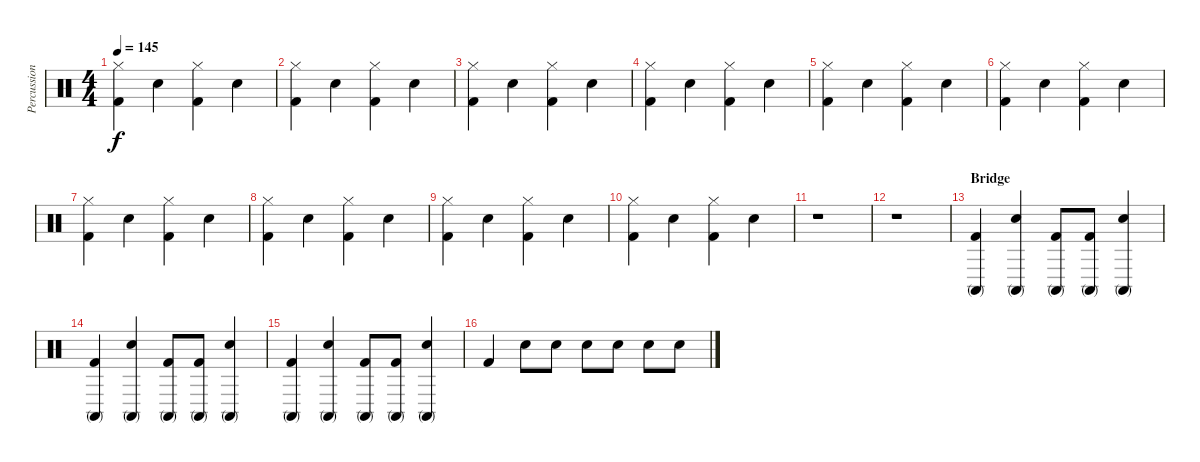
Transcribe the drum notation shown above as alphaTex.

\track ("Percussions" "Percussion") {instrument percussion}
\staff {score}
\articulation defaults
\ts (4 4)
\tempo 145
\clef neutral
\ks c
("Kick (hit) 2" "Hi-Hat (closed)").4{dy f} "Snare (hit) 2".4 ("Kick (hit) 2" "Hi-Hat (closed)").4 "Snare (hit) 2".4 |
("Kick (hit) 2" "Hi-Hat (closed)").4 "Snare (hit) 2".4 ("Kick (hit) 2" "Hi-Hat (closed)").4 "Snare (hit) 2".4 |
("Kick (hit) 2" "Hi-Hat (closed)").4 "Snare (hit) 2".4 ("Kick (hit) 2" "Hi-Hat (closed)").4 "Snare (hit) 2".4 |
("Kick (hit) 2" "Hi-Hat (closed)").4 "Snare (hit) 2".4 ("Kick (hit) 2" "Hi-Hat (closed)").4 "Snare (hit) 2".4 |
("Kick (hit) 2" "Hi-Hat (closed)").4 "Snare (hit) 2".4 ("Kick (hit) 2" "Hi-Hat (closed)").4 "Snare (hit) 2".4 |
("Kick (hit) 2" "Hi-Hat (closed)").4 "Snare (hit) 2".4 ("Kick (hit) 2" "Hi-Hat (closed)").4 "Snare (hit) 2".4 |
("Kick (hit) 2" "Hi-Hat (closed)").4 "Snare (hit) 2".4 ("Kick (hit) 2" "Hi-Hat (closed)").4 "Snare (hit) 2".4 |
("Kick (hit) 2" "Hi-Hat (closed)").4 "Snare (hit) 2".4 ("Kick (hit) 2" "Hi-Hat (closed)").4 "Snare (hit) 2".4 |
("Kick (hit) 2" "Hi-Hat (closed)").4 "Snare (hit) 2".4 ("Kick (hit) 2" "Hi-Hat (closed)").4 "Snare (hit) 2".4 |
("Kick (hit) 2" "Hi-Hat (closed)").4 "Snare (hit) 2".4 ("Kick (hit) 2" "Hi-Hat (closed)").4 "Snare (hit) 2".4 |
r.1 |
r.1 |
\section ("" "Bridge")
("Kick (hit) 2" "Conga high (mute)").4 ("Snare (hit) 2" "Conga high (mute)").4 ("Kick (hit) 2" "Conga high (mute)").8 ("Kick (hit) 2" "Conga high (mute)").8 ("Snare (hit) 2" "Conga high (mute)").4 |
("Kick (hit) 2" "Conga high (mute)").4 ("Snare (hit) 2" "Conga high (mute)").4 ("Kick (hit) 2" "Conga high (mute)").8 ("Kick (hit) 2" "Conga high (mute)").8 ("Snare (hit) 2" "Conga high (mute)").4 |
("Kick (hit) 2" "Conga high (mute)").4 ("Snare (hit) 2" "Conga high (mute)").4 ("Kick (hit) 2" "Conga high (mute)").8 ("Kick (hit) 2" "Conga high (mute)").8 ("Snare (hit) 2" "Conga high (mute)").4 |
"Kick (hit) 2".4 "Snare (hit) 2".8 "Snare (hit) 2".8 "Snare (hit) 2".8 "Snare (hit) 2".8 "Snare (hit) 2".8 "Snare (hit) 2".8
